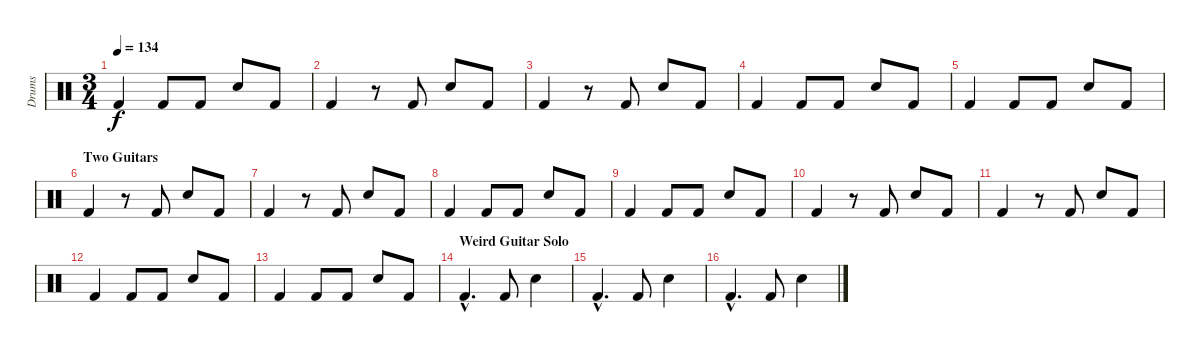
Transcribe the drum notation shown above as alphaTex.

\track ("Drums" "Drums") {instrument percussion}
\staff {score}
\articulation defaults
\ts (3 4)
\tempo 134
\clef neutral
\ks c "Kick (hit) 2".4{dy f} "Kick (hit) 2".8 "Kick (hit) 2".8 "Snare (hit) 2".8 "Kick (hit) 2".8
|
"Kick (hit) 2".4 r.8 "Kick (hit) 2".8 "Snare (hit) 2".8 "Kick (hit) 2".8 |
"Kick (hit) 2".4 r.8 "Kick (hit) 2".8 "Snare (hit) 2".8 "Kick (hit) 2".8 |
"Kick (hit) 2".4 "Kick (hit) 2".8 "Kick (hit) 2".8 "Snare (hit) 2".8 "Kick (hit) 2".8 |
"Kick (hit) 2".4 "Kick (hit) 2".8 "Kick (hit) 2".8 "Snare (hit) 2".8 "Kick (hit) 2".8 |
\section ("" "Two Guitars")
"Kick (hit) 2".4 r.8 "Kick (hit) 2".8 "Snare (hit) 2".8 "Kick (hit) 2".8 |
"Kick (hit) 2".4 r.8 "Kick (hit) 2".8 "Snare (hit) 2".8 "Kick (hit) 2".8 |
"Kick (hit) 2".4 "Kick (hit) 2".8 "Kick (hit) 2".8 "Snare (hit) 2".8 "Kick (hit) 2".8 |
"Kick (hit) 2".4 "Kick (hit) 2".8 "Kick (hit) 2".8 "Snare (hit) 2".8 "Kick (hit) 2".8 |
"Kick (hit) 2".4 r.8 "Kick (hit) 2".8 "Snare (hit) 2".8 "Kick (hit) 2".8 |
"Kick (hit) 2".4 r.8 "Kick (hit) 2".8 "Snare (hit) 2".8 "Kick (hit) 2".8 |
"Kick (hit) 2".4 "Kick (hit) 2".8 "Kick (hit) 2".8 "Snare (hit) 2".8 "Kick (hit) 2".8 |
"Kick (hit) 2".4 "Kick (hit) 2".8 "Kick (hit) 2".8 "Snare (hit) 2".8 "Kick (hit) 2".8 |
\section ("" "Weird Guitar Solo")
"Kick (hit) 2"{hac}.4{d} "Kick (hit) 2".8 "Snare (hit) 2".4 |
"Kick (hit) 2"{hac}.4{d} "Kick (hit) 2".8 "Snare (hit) 2".4 |
"Kick (hit) 2"{hac}.4{d} "Kick (hit) 2".8 "Snare (hit) 2".4
